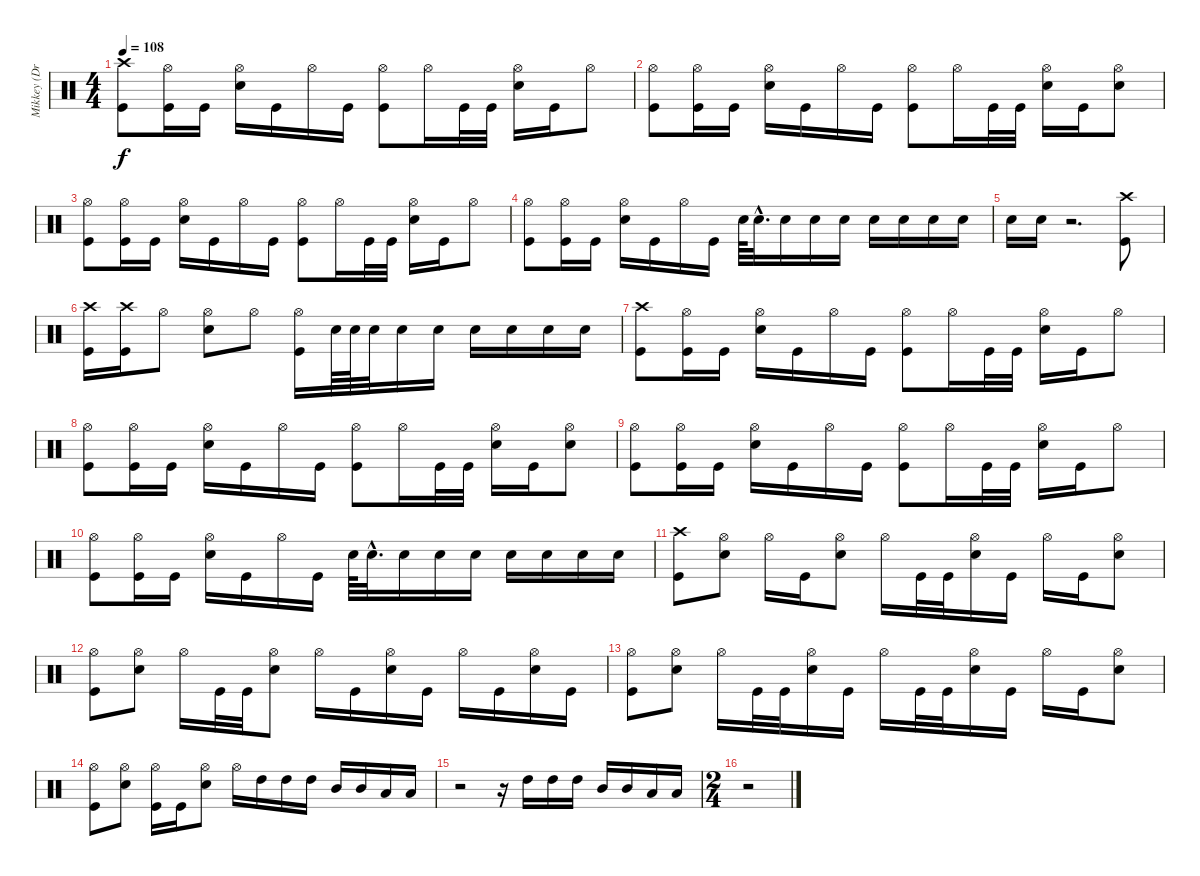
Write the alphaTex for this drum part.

\track ("Mikkey (Drums)" "Mikkey (Dr") {instrument percussion}
\staff {score}
\articulation defaults
\ts (4 4)
\tempo 108
\clef neutral
\ks c
("Crash high (hit)" "Kick (hit)").8{dy f} ("Hi-Hat (open)" "Kick (hit)").16 "Kick (hit)".16 ("Hi-Hat (open)" "Electric Snare (hit)").16 "Kick (hit)".16 "Hi-Hat (open)".16 "Kick (hit)".16 ("Hi-Hat (open)" "Kick (hit)").8 "Hi-Hat (open)".16 "Kick (hit)".32 "Kick (hit)".32 ("Hi-Hat (open)" "Electric Snare (hit)").16 "Kick (hit)".16 "Hi-Hat (open)".8 |
("Hi-Hat (open)" "Kick (hit)").8 ("Hi-Hat (open)" "Kick (hit)").16 "Kick (hit)".16 ("Hi-Hat (open)" "Electric Snare (hit)").16 "Kick (hit)".16 "Hi-Hat (open)".16 "Kick (hit)".16 ("Hi-Hat (open)" "Kick (hit)").8 "Hi-Hat (open)".16 "Kick (hit)".32 "Kick (hit)".32 ("Hi-Hat (open)" "Electric Snare (hit)").16 "Kick (hit)".16 ("Hi-Hat (open)" "Electric Snare (hit)").8 |
("Hi-Hat (open)" "Kick (hit)").8 ("Hi-Hat (open)" "Kick (hit)").16 "Kick (hit)".16 ("Hi-Hat (open)" "Electric Snare (hit)").16 "Kick (hit)".16 "Hi-Hat (open)".16 "Kick (hit)".16 ("Hi-Hat (open)" "Kick (hit)").8 "Hi-Hat (open)".16 "Kick (hit)".32 "Kick (hit)".32 ("Hi-Hat (open)" "Electric Snare (hit)").16 "Kick (hit)".16 "Hi-Hat (open)".8 |
("Hi-Hat (open)" "Kick (hit)").8 ("Hi-Hat (open)" "Kick (hit)").16 "Kick (hit)".16 ("Hi-Hat (open)" "Electric Snare (hit)").16 "Kick (hit)".16 "Hi-Hat (open)".16 "Kick (hit)".16 "Electric Snare (hit)".64 "Electric Snare (hit)"{hac}.32{d} "Electric Snare (hit)".16 "Electric Snare (hit)".16 "Electric Snare (hit)".16 "Electric Snare (hit)".16 "Electric Snare (hit)".16 "Electric Snare (hit)".16 "Electric Snare (hit)".16 |
"Electric Snare (hit)".16 "Electric Snare (hit)".16 r.2{d} ("Crash high (hit)" "Kick (hit)").8 |
("Crash high (hit)" "Kick (hit)").16 ("Crash high (hit)" "Kick (hit)").16 "Hi-Hat (open)".8 ("Hi-Hat (open)" "Electric Snare (hit)").8 "Hi-Hat (open)".8 ("Hi-Hat (open)" "Kick (hit)").16 "Electric Snare (hit)".64 "Electric Snare (hit)".64 "Electric Snare (hit)".32 "Electric Snare (hit)".16 "Electric Snare (hit)".16 "Electric Snare (hit)".16 "Electric Snare (hit)".16 "Electric Snare (hit)".16 "Electric Snare (hit)".16 |
("Crash high (hit)" "Kick (hit)").8 ("Hi-Hat (open)" "Kick (hit)").16 "Kick (hit)".16 ("Hi-Hat (open)" "Electric Snare (hit)").16 "Kick (hit)".16 "Hi-Hat (open)".16 "Kick (hit)".16 ("Hi-Hat (open)" "Kick (hit)").8 "Hi-Hat (open)".16 "Kick (hit)".32 "Kick (hit)".32 ("Hi-Hat (open)" "Electric Snare (hit)").16 "Kick (hit)".16 "Hi-Hat (open)".8 |
("Hi-Hat (open)" "Kick (hit)").8 ("Hi-Hat (open)" "Kick (hit)").16 "Kick (hit)".16 ("Hi-Hat (open)" "Electric Snare (hit)").16 "Kick (hit)".16 "Hi-Hat (open)".16 "Kick (hit)".16 ("Hi-Hat (open)" "Kick (hit)").8 "Hi-Hat (open)".16 "Kick (hit)".32 "Kick (hit)".32 ("Hi-Hat (open)" "Electric Snare (hit)").16 "Kick (hit)".16 ("Hi-Hat (open)" "Electric Snare (hit)").8 |
("Hi-Hat (open)" "Kick (hit)").8 ("Hi-Hat (open)" "Kick (hit)").16 "Kick (hit)".16 ("Hi-Hat (open)" "Electric Snare (hit)").16 "Kick (hit)".16 "Hi-Hat (open)".16 "Kick (hit)".16 ("Hi-Hat (open)" "Kick (hit)").8 "Hi-Hat (open)".16 "Kick (hit)".32 "Kick (hit)".32 ("Hi-Hat (open)" "Electric Snare (hit)").16 "Kick (hit)".16 "Hi-Hat (open)".8 |
("Hi-Hat (open)" "Kick (hit)").8 ("Hi-Hat (open)" "Kick (hit)").16 "Kick (hit)".16 ("Hi-Hat (open)" "Electric Snare (hit)").16 "Kick (hit)".16 "Hi-Hat (open)".16 "Kick (hit)".16 "Electric Snare (hit)".64 "Electric Snare (hit)"{hac}.32{d} "Electric Snare (hit)".16 "Electric Snare (hit)".16 "Electric Snare (hit)".16 "Electric Snare (hit)".16 "Electric Snare (hit)".16 "Electric Snare (hit)".16 "Electric Snare (hit)".16 |
("Crash high (hit)" "Kick (hit)").8 ("Hi-Hat (open)" "Electric Snare (hit)").8 "Hi-Hat (open)".16 "Kick (hit)".16 ("Hi-Hat (open)" "Electric Snare (hit)").8 "Hi-Hat (open)".16 "Kick (hit)".32 "Kick (hit)".32 ("Hi-Hat (open)" "Electric Snare (hit)").16 "Kick (hit)".16 "Hi-Hat (open)".16 "Kick (hit)".16 ("Hi-Hat (open)" "Electric Snare (hit)").8 |
("Hi-Hat (open)" "Kick (hit)").8 ("Hi-Hat (open)" "Electric Snare (hit)").8 "Hi-Hat (open)".16 "Kick (hit)".32 "Kick (hit)".32 ("Hi-Hat (open)" "Electric Snare (hit)").8 "Hi-Hat (open)".16 "Kick (hit)".16 ("Hi-Hat (open)" "Electric Snare (hit)").16 "Kick (hit)".16 "Hi-Hat (open)".16 "Kick (hit)".16 ("Hi-Hat (open)" "Electric Snare (hit)").16 "Kick (hit)".16 |
("Hi-Hat (open)" "Kick (hit)").8 ("Hi-Hat (open)" "Electric Snare (hit)").8 "Hi-Hat (open)".16 "Kick (hit)".32 "Kick (hit)".32 ("Hi-Hat (open)" "Electric Snare (hit)").16 "Kick (hit)".16 "Hi-Hat (open)".16 "Kick (hit)".32 "Kick (hit)".32 ("Hi-Hat (open)" "Electric Snare (hit)").16 "Kick (hit)".16 "Hi-Hat (open)".16 "Kick (hit)".16 ("Hi-Hat (open)" "Electric Snare (hit)").8 |
("Hi-Hat (open)" "Kick (hit)").8 ("Hi-Hat (open)" "Electric Snare (hit)").8 ("Hi-Hat (open)" "Kick (hit)").16 "Kick (hit)".16 ("Hi-Hat (open)" "Electric Snare (hit)").8 "Hi-Hat (open)".16 "High Tom (hit)".16 "High Tom (hit)".16 "High Tom (hit)".16 "Mid Tom (hit)".16 "Mid Tom (hit)".16 "Low Tom (hit)".16 "Low Tom (hit)".16 |
r.2 r.16 "High Tom (hit)".16 "High Tom (hit)".16 "High Tom (hit)".16 "Mid Tom (hit)".16 "Mid Tom (hit)".16 "Low Tom (hit)".16 "Low Tom (hit)".16 |
\ts (2 4)
r.2
